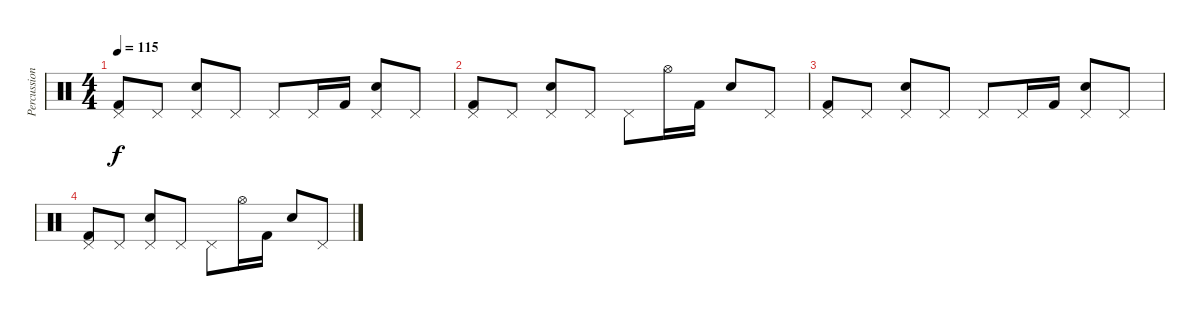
\track ("Percussions" "Percussion") {instrument percussion}
\staff {score}
\articulation defaults
\ts (4 4)
\tempo 115
\clef neutral
\ks c
("Pedal Hi-Hat (hit)" "Kick (hit) 2").8{dy f} "Pedal Hi-Hat (hit)".8 ("Pedal Hi-Hat (hit)" "Snare (hit) 2").8 "Pedal Hi-Hat (hit)".8 "Pedal Hi-Hat (hit)".8 "Pedal Hi-Hat (hit)".16 "Kick (hit) 2".16 ("Pedal Hi-Hat (hit)" "Snare (hit) 2").8 "Pedal Hi-Hat (hit)".8 |
("Pedal Hi-Hat (hit)" "Kick (hit) 2").8 "Pedal Hi-Hat (hit)".8 ("Pedal Hi-Hat (hit)" "Snare (hit) 2").8 "Pedal Hi-Hat (hit)".8 "Pedal Hi-Hat (hit)".8 "Hi-Hat (open)".16 "Kick (hit) 2".16 "Snare (hit) 2".8 "Pedal Hi-Hat (hit)".8 |
("Pedal Hi-Hat (hit)" "Kick (hit) 2").8 "Pedal Hi-Hat (hit)".8 ("Pedal Hi-Hat (hit)" "Snare (hit) 2").8 "Pedal Hi-Hat (hit)".8 "Pedal Hi-Hat (hit)".8 "Pedal Hi-Hat (hit)".16 "Kick (hit) 2".16 ("Pedal Hi-Hat (hit)" "Snare (hit) 2").8 "Pedal Hi-Hat (hit)".8 |
("Pedal Hi-Hat (hit)" "Kick (hit) 2").8 "Pedal Hi-Hat (hit)".8 ("Pedal Hi-Hat (hit)" "Snare (hit) 2").8 "Pedal Hi-Hat (hit)".8 "Pedal Hi-Hat (hit)".8 "Hi-Hat (open)".16 "Kick (hit) 2".16 "Snare (hit) 2".8 "Pedal Hi-Hat (hit)".8
